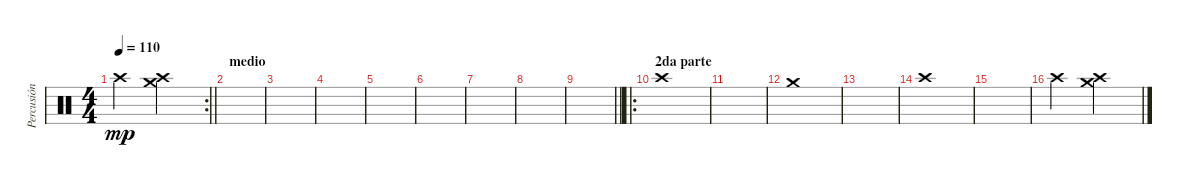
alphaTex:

\track ("Percusión" "Percusión") {instrument percussion}
\staff {score}
\articulation defaults
\rc 2
\ts (4 4)
\tempo 110
\clef neutral
\barLineRight lightlight
\ks c "Crash high (hit)".2{dy mp}
("Crash medium (hit)" "Crash high (hit)").2 |
\section ("" "medio")
|
|
|
|
|
|
|
\barLineRight lightlight
|
\ro
\section ("" "2da parte")
"Crash high (hit)".1 |
|
"Crash medium (hit)".1 |
|
"Crash high (hit)".1 |
|
"Crash high (hit)".2 ("Crash medium (hit)" "Crash high (hit)").2
